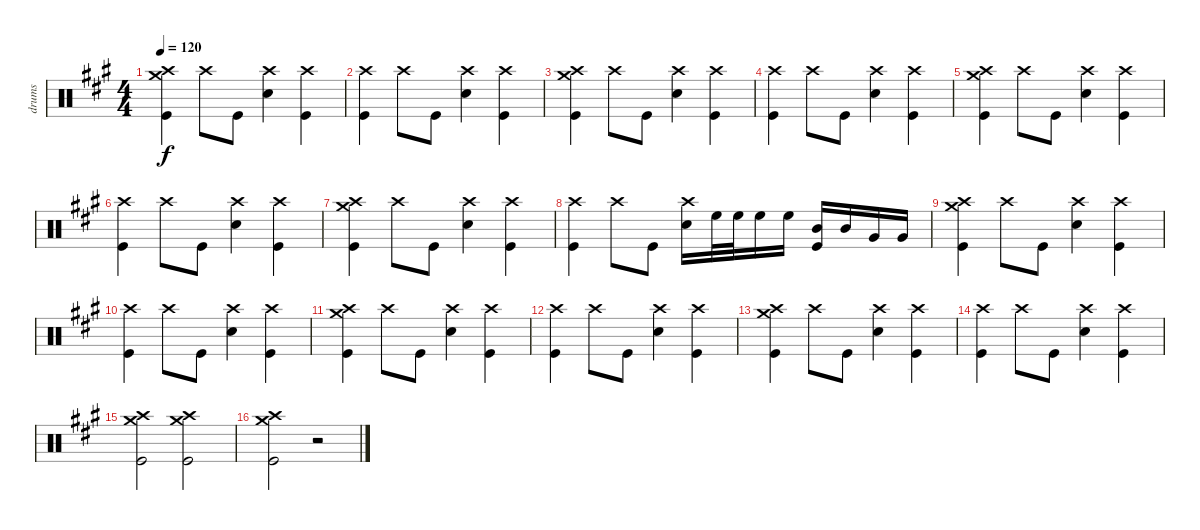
\track ("drums" "drums") {instrument percussion}
\staff {score}
\articulation defaults
\ts (4 4)
\tempo 120
\clef neutral
\ks f#minor
("Kick (hit)" "Crash high (hit)" "Crash medium (hit)").4{dy f} "Crash high (hit)".8 "Kick (hit)".8 ("Snare (hit) 2" "Crash high (hit)").4 ("Crash high (hit)" "Kick (hit)").4 |
("Kick (hit)" "Crash high (hit)").4 "Crash high (hit)".8 "Kick (hit)".8 ("Snare (hit) 2" "Crash high (hit)").4 ("Crash high (hit)" "Kick (hit)").4 |
("Kick (hit)" "Crash high (hit)" "Crash medium (hit)").4 "Crash high (hit)".8 "Kick (hit)".8 ("Snare (hit) 2" "Crash high (hit)").4 ("Crash high (hit)" "Kick (hit)").4 |
("Kick (hit)" "Crash high (hit)").4 "Crash high (hit)".8 "Kick (hit)".8 ("Snare (hit) 2" "Crash high (hit)").4 ("Crash high (hit)" "Kick (hit)").4 |
("Kick (hit)" "Crash high (hit)" "Crash medium (hit)").4 "Crash high (hit)".8 "Kick (hit)".8 ("Snare (hit) 2" "Crash high (hit)").4 ("Crash high (hit)" "Kick (hit)").4 |
("Kick (hit)" "Crash high (hit)").4 "Crash high (hit)".8 "Kick (hit)".8 ("Snare (hit) 2" "Crash high (hit)").4 ("Crash high (hit)" "Kick (hit)").4 |
("Kick (hit)" "Crash high (hit)" "Crash medium (hit)").4 "Crash high (hit)".8 "Kick (hit)".8 ("Snare (hit) 2" "Crash high (hit)").4 ("Crash high (hit)" "Kick (hit)").4 |
("Kick (hit)" "Crash high (hit)").4 "Crash high (hit)".8 "Kick (hit)".8 ("Snare (hit) 2" "Crash high (hit)").16 "High Floor Tom (hit)".32 "High Floor Tom (hit)".32 "High Floor Tom (hit)".16 "High Floor Tom (hit)".16 ("Mid Tom (hit)" "Kick (hit)").16 "Mid Tom (hit)".16 "Very Low Tom (hit)".16 "Very Low Tom (hit)".16 |
("Kick (hit)" "Crash high (hit)" "Crash medium (hit)").4 "Crash high (hit)".8 "Kick (hit)".8 ("Snare (hit) 2" "Crash high (hit)").4 ("Crash high (hit)" "Kick (hit)").4 |
("Kick (hit)" "Crash high (hit)").4 "Crash high (hit)".8 "Kick (hit)".8 ("Snare (hit) 2" "Crash high (hit)").4 ("Crash high (hit)" "Kick (hit)").4 |
("Kick (hit)" "Crash high (hit)" "Crash medium (hit)").4 "Crash high (hit)".8 "Kick (hit)".8 ("Snare (hit) 2" "Crash high (hit)").4 ("Crash high (hit)" "Kick (hit)").4 |
("Kick (hit)" "Crash high (hit)").4 "Crash high (hit)".8 "Kick (hit)".8 ("Snare (hit) 2" "Crash high (hit)").4 ("Crash high (hit)" "Kick (hit)").4 |
("Kick (hit)" "Crash high (hit)" "Crash medium (hit)").4 "Crash high (hit)".8 "Kick (hit)".8 ("Snare (hit) 2" "Crash high (hit)").4 ("Crash high (hit)" "Kick (hit)").4 |
("Kick (hit)" "Crash high (hit)").4 "Crash high (hit)".8 "Kick (hit)".8 ("Snare (hit) 2" "Crash high (hit)").4 ("Crash high (hit)" "Kick (hit)").4 |
("Kick (hit)" "Crash high (hit)" "Crash medium (hit)").2 ("Kick (hit)" "Crash high (hit)" "Crash medium (hit)").2 |
("Kick (hit)" "Crash high (hit)" "Crash medium (hit)").2 r.2
